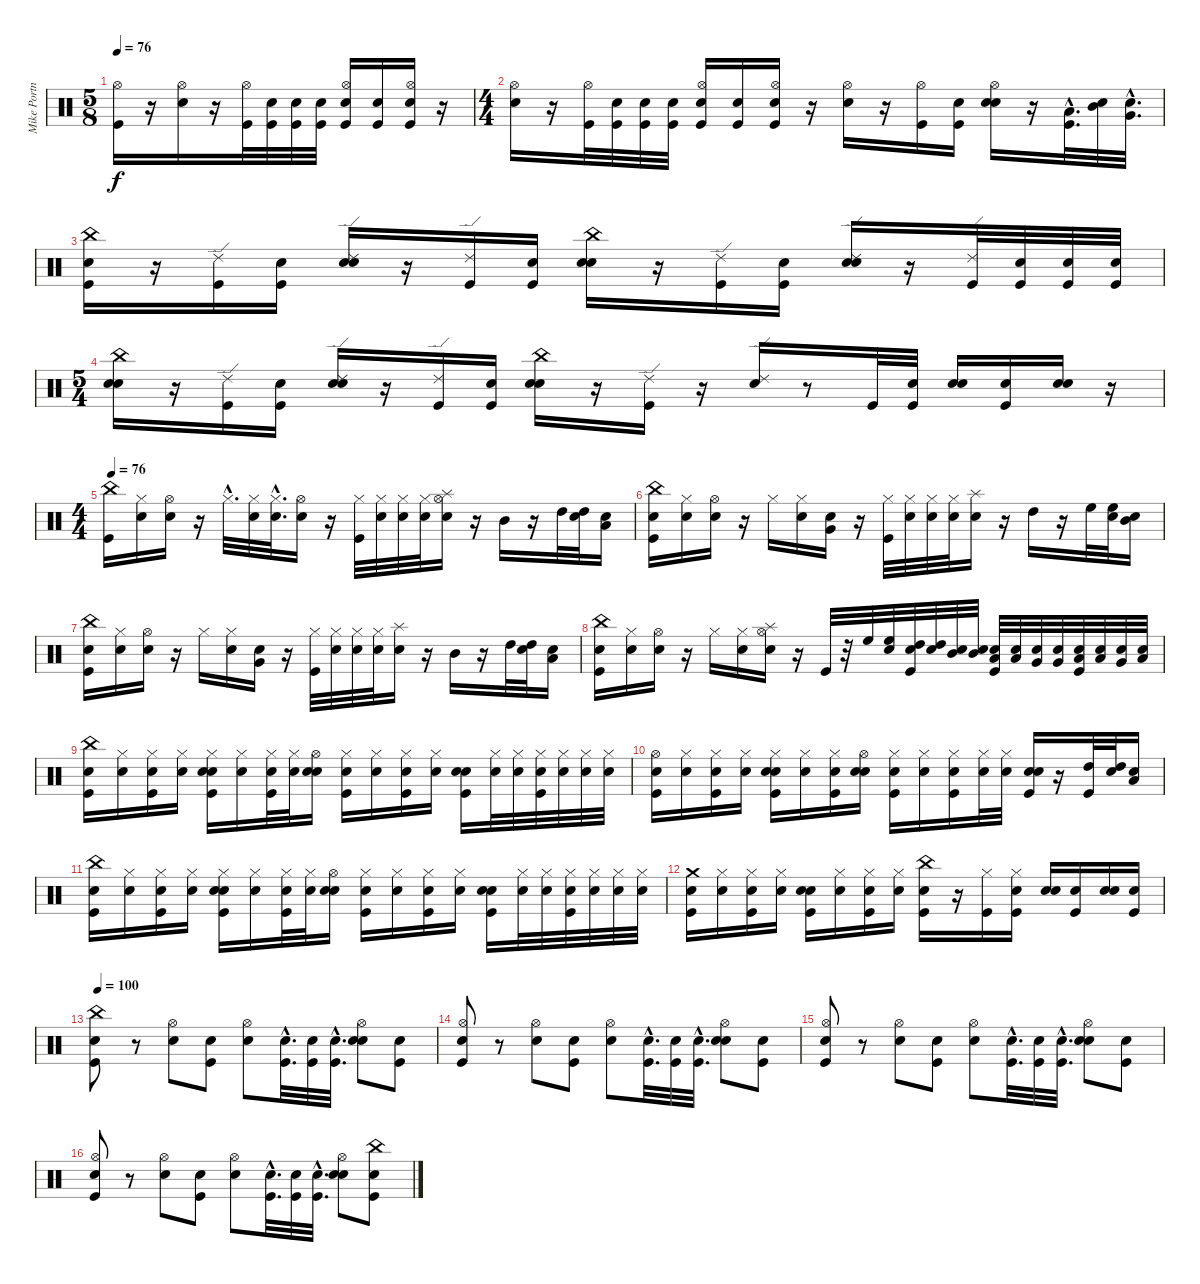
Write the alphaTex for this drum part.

\track ("Mike Portnoy - Drum" "Mike Portn") {instrument percussion}
\staff {score}
\articulation defaults
\ts (5 8)
\tempo 76
\clef neutral
\ks c
("Kick (hit)" "Hi-Hat (open)").16{dy f} r.16 ("Snare (hit) 2" "Hi-Hat (open)").16 r.16 ("Kick (hit)" "Hi-Hat (open)").32 ("Snare (hit)" "Kick (hit)").32 ("Snare (hit)" "Kick (hit)").32 ("Snare (hit)" "Kick (hit)").32 ("Snare (hit)" "Kick (hit)" "Hi-Hat (open)").16 ("Snare (hit)" "Kick (hit)").16 ("Snare (hit)" "Kick (hit)" "Hi-Hat (open)").16 r.16 |
\ts (4 4)
("Snare (hit) 2" "Hi-Hat (open)").16 r.16 ("Kick (hit)" "Hi-Hat (open)").32 ("Snare (hit)" "Kick (hit)").32 ("Snare (hit)" "Kick (hit)").32 ("Snare (hit)" "Kick (hit)").32 ("Snare (hit)" "Kick (hit)" "Hi-Hat (open)").16 ("Snare (hit)" "Kick (hit)").16 ("Snare (hit)" "Kick (hit)" "Hi-Hat (open)").16 r.16 ("Snare (hit) 2" "Hi-Hat (open)").16 r.16 ("Kick (hit)" "Hi-Hat (open)").16 ("Snare (hit)" "Kick (hit)").16 ("Snare (hit)" "Snare (hit) 2" "Hi-Hat (open)").16 r.16 ("Kick (hit)"{hac} "Low Tom (hit)"{hac}).32{d} ("Snare (hit)" "Mid Tom (hit)").32 ("Snare (hit)"{hac} "Very Low Tom (hit)"{hac}).32{d} |
("Snare (hit)" "Kick (hit)" "China (hit)").16 r.16 ("Kick (hit)" "Ride (edge) 2").16 ("Snare (hit)" "Kick (hit)").16 ("Snare (hit)" "Snare (hit) 2" "Ride (edge) 2").16 r.16 ("Kick (hit)" "Ride (edge) 2").16 ("Snare (hit)" "Kick (hit)").16 ("Snare (hit)" "Snare (hit) 2" "China (hit)").16 r.16 ("Kick (hit)" "Ride (edge) 2").16 ("Snare (hit)" "Kick (hit)").16 ("Snare (hit)" "Snare (hit) 2" "Ride (edge) 2").16 r.16 ("Kick (hit)" "Ride (edge) 2").32 ("Snare (hit)" "Kick (hit)").32 ("Snare (hit)" "Kick (hit)").32 ("Snare (hit)" "Kick (hit)").32 |
\ts (5 4)
("Snare (hit)" "Snare (hit) 2" "China (hit)").16 r.16 ("Kick (hit)" "Ride (edge) 2").16 ("Snare (hit)" "Kick (hit)").16 ("Snare (hit)" "Snare (hit) 2" "Ride (edge) 2").16 r.16 ("Kick (hit)" "Ride (edge) 2").16 ("Snare (hit)" "Kick (hit)").16 ("Snare (hit)" "Snare (hit) 2" "China (hit)").16 r.16 ("Kick (hit)" "Ride (edge) 2").16 r.16 ("Snare (hit) 2" "Ride (edge) 2").16 r.8 "Kick (hit)".32 ("Snare (hit)" "Kick (hit)").32 ("Snare (hit)" "Snare (hit) 2").16 ("Snare (hit)" "Kick (hit)").16 ("Snare (hit)" "Snare (hit) 2").16 r.16 |
\ts (4 4)
\tempo 76
("Kick (hit)" "China (hit)").16 ("Snare (hit)" "Hi-Hat (closed)").16 ("Snare (hit)" "Hi-Hat (open)").16 r.16 "Hi-Hat (closed)"{hac}.32{d} ("Snare (hit)" "Hi-Hat (closed)").32 ("Snare (hit)"{hac} "Hi-Hat (closed)"{hac}).32{d} ("Snare (hit)" "Hi-Hat (open)").16 r.16 ("Kick (hit)" "Hi-Hat (closed)").32 ("Snare (hit)" "Hi-Hat (closed)").32 ("Snare (hit)" "Hi-Hat (closed)").32 ("Snare (hit)" "Hi-Hat (closed)").32 ("Snare (hit)" "Hi-Hat (open)" "Splash (hit)").16 r.16 "Mid Tom (hit)".16 r.16 "High Tom (hit)".32 ("Snare (hit)" "High Tom (hit)").32 ("Snare (hit)" "Low Tom (hit)").16 |
("Snare (hit)" "Kick (hit)" "China (hit)").16 ("Snare (hit)" "Hi-Hat (closed)").16 ("Snare (hit)" "Hi-Hat (open)").16 r.16 "Hi-Hat (closed)".16 ("Snare (hit)" "Hi-Hat (closed)").16 ("Snare (hit)" "Very Low Tom (hit)").16 r.16 ("Kick (hit)" "Hi-Hat (closed)").32 ("Snare (hit)" "Hi-Hat (closed)").32 ("Snare (hit)" "Hi-Hat (closed)").32 ("Snare (hit)" "Hi-Hat (closed)").32 ("Snare (hit)" "Splash (hit)").16 r.16 "High Tom (hit)".16 r.16 "High Floor Tom (hit)".32 ("Snare (hit)" "High Floor Tom (hit)").32 ("Snare (hit)" "Mid Tom (hit)").16 |
("Snare (hit)" "Kick (hit)" "China (hit)").16 ("Snare (hit)" "Hi-Hat (closed)").16 ("Snare (hit)" "Hi-Hat (open)").16 r.16 "Hi-Hat (closed)".16 ("Snare (hit)" "Hi-Hat (closed)").16 ("Snare (hit)" "Very Low Tom (hit)").16 r.16 ("Kick (hit)" "Hi-Hat (closed)").32 ("Snare (hit)" "Hi-Hat (closed)").32 ("Snare (hit)" "Hi-Hat (closed)").32 ("Snare (hit)" "Hi-Hat (closed)").32 ("Snare (hit)" "Splash (hit)").16 r.16 "Mid Tom (hit)".16 r.16 "High Tom (hit)".32 ("Snare (hit)" "High Tom (hit)").32 ("Snare (hit)" "Low Tom (hit)").16 |
("Snare (hit)" "Kick (hit)" "China (hit)").16 ("Snare (hit)" "Hi-Hat (closed)").16 ("Snare (hit)" "Hi-Hat (open)").16 r.16 "Hi-Hat (closed)".16 ("Snare (hit)" "Hi-Hat (closed)").16 ("Snare (hit)" "Hi-Hat (open)" "Splash (hit)").16 r.16 "Kick (hit)".32 r.32 "High Floor Tom (hit)".32 ("Snare (hit)" "High Floor Tom (hit)").32 ("Snare (hit)" "Kick (hit)" "High Tom (hit)").32 ("Snare (hit)" "High Tom (hit)").32 ("Snare (hit)" "Mid Tom (hit)").32 ("Snare (hit)" "Mid Tom (hit)").32 ("Snare (hit)" "Kick (hit)" "Low Tom (hit)").32 ("Snare (hit)" "Low Tom (hit)").32 ("Snare (hit)" "Very Low Tom (hit)").32 ("Snare (hit)" "Very Low Tom (hit)").32 ("Snare (hit)" "Kick (hit)" "Low Floor Tom (hit)").32 ("Snare (hit)" "Low Floor Tom (hit)").32 ("Snare (hit)" "Very Low Tom (hit)").32 ("Snare (hit)" "Low Floor Tom (hit)").32 |
("Snare (hit)" "Kick (hit)" "China (hit)").16 ("Snare (hit)" "Hi-Hat (closed)").16 ("Snare (hit)" "Kick (hit)" "Hi-Hat (closed)").16 ("Snare (hit)" "Hi-Hat (closed)").16 ("Snare (hit)" "Kick (hit)" "Snare (hit) 2" "Hi-Hat (closed)").16 ("Snare (hit)" "Hi-Hat (closed)").16 ("Snare (hit)" "Kick (hit)" "Hi-Hat (closed)").32 ("Snare (hit)" "Hi-Hat (closed)").32 ("Snare (hit)" "Snare (hit) 2" "Hi-Hat (open)").16 ("Snare (hit)" "Kick (hit)" "Hi-Hat (closed)").16 ("Snare (hit)" "Hi-Hat (closed)").16 ("Snare (hit)" "Kick (hit)" "Hi-Hat (closed)").16 ("Snare (hit)" "Hi-Hat (closed)").16 ("Snare (hit)" "Kick (hit)" "Snare (hit) 2").16 ("Snare (hit)" "Hi-Hat (closed)").32 ("Snare (hit)" "Hi-Hat (closed)").32 ("Snare (hit)" "Kick (hit)" "Hi-Hat (closed)").32 ("Snare (hit)" "Hi-Hat (closed)").32 ("Snare (hit)" "Hi-Hat (closed)").32 ("Snare (hit)" "Hi-Hat (closed)").32 |
("Snare (hit)" "Kick (hit)" "Hi-Hat (open)").16 ("Snare (hit)" "Hi-Hat (closed)").16 ("Snare (hit)" "Kick (hit)" "Hi-Hat (closed)").16 ("Snare (hit)" "Hi-Hat (closed)").16 ("Snare (hit)" "Kick (hit)" "Snare (hit) 2" "Hi-Hat (closed)").16 ("Snare (hit)" "Hi-Hat (closed)").16 ("Snare (hit)" "Kick (hit)" "Hi-Hat (closed)").16 ("Snare (hit)" "Snare (hit) 2" "Hi-Hat (open)").16 ("Snare (hit)" "Kick (hit)" "Hi-Hat (closed)").16 ("Snare (hit)" "Hi-Hat (closed)").16 ("Snare (hit)" "Kick (hit)" "Hi-Hat (closed)").16 ("Snare (hit)" "Hi-Hat (closed)").32 ("Snare (hit)" "Hi-Hat (closed)").32 ("Snare (hit)" "Kick (hit)" "Snare (hit) 2").16 r.16 ("Kick (hit)" "High Tom (hit)").32 ("Snare (hit)" "High Tom (hit)").32 ("Snare (hit)" "Low Tom (hit)").16 |
("Snare (hit)" "Kick (hit)" "China (hit)").16 ("Snare (hit)" "Hi-Hat (closed)").16 ("Snare (hit)" "Kick (hit)" "Hi-Hat (closed)").16 ("Snare (hit)" "Hi-Hat (closed)").16 ("Snare (hit)" "Kick (hit)" "Snare (hit) 2" "Hi-Hat (closed)").16 ("Snare (hit)" "Hi-Hat (closed)").16 ("Snare (hit)" "Kick (hit)" "Hi-Hat (closed)").32 ("Snare (hit)" "Hi-Hat (closed)").32 ("Snare (hit)" "Snare (hit) 2" "Hi-Hat (open)").16 ("Snare (hit)" "Kick (hit)" "Hi-Hat (closed)").16 ("Snare (hit)" "Hi-Hat (closed)").16 ("Snare (hit)" "Kick (hit)" "Hi-Hat (closed)").16 ("Snare (hit)" "Hi-Hat (closed)").16 ("Snare (hit)" "Kick (hit)" "Snare (hit) 2").16 ("Snare (hit)" "Hi-Hat (closed)").32 ("Snare (hit)" "Hi-Hat (closed)").32 ("Snare (hit)" "Kick (hit)" "Hi-Hat (closed)").32 ("Snare (hit)" "Hi-Hat (closed)").32 ("Snare (hit)" "Hi-Hat (closed)").32 ("Snare (hit)" "Hi-Hat (closed)").32 |
("Snare (hit)" "Kick (hit)" "Crash medium (hit)").16 ("Snare (hit)" "Hi-Hat (closed)").16 ("Snare (hit)" "Kick (hit)" "Hi-Hat (closed)").16 ("Snare (hit)" "Hi-Hat (closed)").16 ("Snare (hit)" "Kick (hit)" "Snare (hit) 2").16 ("Snare (hit)" "Hi-Hat (closed)").16 ("Snare (hit)" "Kick (hit)" "Hi-Hat (closed)").16 ("Snare (hit)" "Hi-Hat (closed)").16 ("Snare (hit)" "Kick (hit)" "China (hit)").16 r.16 ("Kick (hit)" "Hi-Hat (closed)").16 ("Snare (hit)" "Kick (hit)" "Hi-Hat (closed)").16 ("Snare (hit)" "Snare (hit) 2").16 ("Snare (hit)" "Kick (hit)").16 ("Snare (hit)" "Snare (hit) 2").16 ("Snare (hit)" "Kick (hit)").16 |
\tempo 100
("Snare (hit)" "Kick (hit)" "China (hit)").8 r.8 ("Snare (hit) 2" "Hi-Hat (open)").8 ("Snare (hit)" "Kick (hit)").8 ("Snare (hit)" "Hi-Hat (open)").8 ("Snare (hit)"{hac} "Kick (hit)"{hac}).32{d} ("Snare (hit)" "Kick (hit)").32 ("Snare (hit)"{hac} "Kick (hit)"{hac}).32{d} ("Snare (hit)" "Snare (hit) 2" "Hi-Hat (open)").8 ("Snare (hit)" "Kick (hit)").8 |
("Snare (hit)" "Kick (hit)" "Hi-Hat (open)").8 r.8 ("Snare (hit) 2" "Hi-Hat (open)").8 ("Snare (hit)" "Kick (hit)").8 ("Snare (hit)" "Hi-Hat (open)").8 ("Snare (hit)"{hac} "Kick (hit)"{hac}).32{d} ("Snare (hit)" "Kick (hit)").32 ("Snare (hit)"{hac} "Kick (hit)"{hac}).32{d} ("Snare (hit)" "Snare (hit) 2" "Hi-Hat (open)").8 ("Snare (hit)" "Kick (hit)").8 |
("Snare (hit)" "Kick (hit)" "Hi-Hat (open)").8 r.8 ("Snare (hit) 2" "Hi-Hat (open)").8 ("Snare (hit)" "Kick (hit)").8 ("Snare (hit)" "Hi-Hat (open)").8 ("Snare (hit)"{hac} "Kick (hit)"{hac}).32{d} ("Snare (hit)" "Kick (hit)").32 ("Snare (hit)"{hac} "Kick (hit)"{hac}).32{d} ("Snare (hit)" "Snare (hit) 2" "Hi-Hat (open)").8 ("Snare (hit)" "Kick (hit)").8 |
("Snare (hit)" "Kick (hit)" "Hi-Hat (open)").8 r.8 ("Snare (hit) 2" "Hi-Hat (open)").8 ("Snare (hit)" "Kick (hit)").8 ("Snare (hit)" "Hi-Hat (open)").8 ("Snare (hit)"{hac} "Kick (hit)"{hac}).32{d} ("Snare (hit)" "Kick (hit)").32 ("Snare (hit)"{hac} "Kick (hit)"{hac}).32{d} ("Snare (hit)" "Snare (hit) 2" "Hi-Hat (open)").8 ("Snare (hit)" "Kick (hit)" "China (hit)").8
